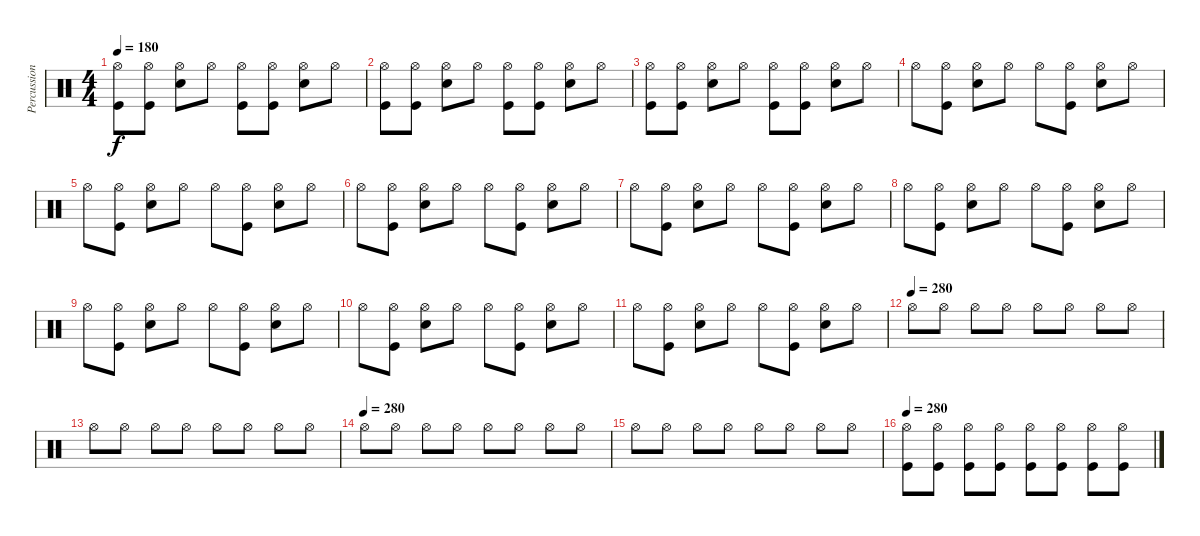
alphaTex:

\track ("Percussion" "Percussion") {instrument percussion}
\staff {score}
\articulation defaults
\ts (4 4)
\tempo 180
\clef neutral
\ks c
("Hi-Hat (open)" "Kick (hit)").8{dy f} ("Hi-Hat (open)" "Kick (hit)").8 ("Snare (hit) 2" "Hi-Hat (open)").8 "Hi-Hat (open)".8 ("Hi-Hat (open)" "Kick (hit)").8 ("Hi-Hat (open)" "Kick (hit)").8 ("Snare (hit) 2" "Hi-Hat (open)").8 "Hi-Hat (open)".8 |
("Hi-Hat (open)" "Kick (hit)").8 ("Hi-Hat (open)" "Kick (hit)").8 ("Snare (hit) 2" "Hi-Hat (open)").8 "Hi-Hat (open)".8 ("Hi-Hat (open)" "Kick (hit)").8 ("Hi-Hat (open)" "Kick (hit)").8 ("Snare (hit) 2" "Hi-Hat (open)").8 "Hi-Hat (open)".8 |
("Hi-Hat (open)" "Kick (hit)").8 ("Hi-Hat (open)" "Kick (hit)").8 ("Snare (hit) 2" "Hi-Hat (open)").8 "Hi-Hat (open)".8 ("Hi-Hat (open)" "Kick (hit)").8 ("Hi-Hat (open)" "Kick (hit)").8 ("Snare (hit) 2" "Hi-Hat (open)").8 "Hi-Hat (open)".8 |
"Hi-Hat (open)".8 ("Hi-Hat (open)" "Kick (hit)").8 ("Snare (hit) 2" "Hi-Hat (open)").8 "Hi-Hat (open)".8 "Hi-Hat (open)".8 ("Hi-Hat (open)" "Kick (hit)").8 ("Snare (hit) 2" "Hi-Hat (open)").8 "Hi-Hat (open)".8 |
"Hi-Hat (open)".8 ("Hi-Hat (open)" "Kick (hit)").8 ("Snare (hit) 2" "Hi-Hat (open)").8 "Hi-Hat (open)".8 "Hi-Hat (open)".8 ("Hi-Hat (open)" "Kick (hit)").8 ("Snare (hit) 2" "Hi-Hat (open)").8 "Hi-Hat (open)".8 |
"Hi-Hat (open)".8 ("Hi-Hat (open)" "Kick (hit)").8 ("Snare (hit) 2" "Hi-Hat (open)").8 "Hi-Hat (open)".8 "Hi-Hat (open)".8 ("Hi-Hat (open)" "Kick (hit)").8 ("Snare (hit) 2" "Hi-Hat (open)").8 "Hi-Hat (open)".8 |
"Hi-Hat (open)".8 ("Hi-Hat (open)" "Kick (hit)").8 ("Snare (hit) 2" "Hi-Hat (open)").8 "Hi-Hat (open)".8 "Hi-Hat (open)".8 ("Hi-Hat (open)" "Kick (hit)").8 ("Snare (hit) 2" "Hi-Hat (open)").8 "Hi-Hat (open)".8 |
"Hi-Hat (open)".8 ("Hi-Hat (open)" "Kick (hit)").8 ("Snare (hit) 2" "Hi-Hat (open)").8 "Hi-Hat (open)".8 "Hi-Hat (open)".8 ("Hi-Hat (open)" "Kick (hit)").8 ("Snare (hit) 2" "Hi-Hat (open)").8 "Hi-Hat (open)".8 |
"Hi-Hat (open)".8 ("Hi-Hat (open)" "Kick (hit)").8 ("Snare (hit) 2" "Hi-Hat (open)").8 "Hi-Hat (open)".8 "Hi-Hat (open)".8 ("Hi-Hat (open)" "Kick (hit)").8 ("Snare (hit) 2" "Hi-Hat (open)").8 "Hi-Hat (open)".8 |
"Hi-Hat (open)".8 ("Hi-Hat (open)" "Kick (hit)").8 ("Snare (hit) 2" "Hi-Hat (open)").8 "Hi-Hat (open)".8 "Hi-Hat (open)".8 ("Hi-Hat (open)" "Kick (hit)").8 ("Snare (hit) 2" "Hi-Hat (open)").8 "Hi-Hat (open)".8 |
"Hi-Hat (open)".8 ("Hi-Hat (open)" "Kick (hit)").8 ("Snare (hit) 2" "Hi-Hat (open)").8 "Hi-Hat (open)".8 "Hi-Hat (open)".8 ("Hi-Hat (open)" "Kick (hit)").8 ("Snare (hit) 2" "Hi-Hat (open)").8 "Hi-Hat (open)".8 |
\tempo (280)
"Hi-Hat (open)".8 "Hi-Hat (open)".8 "Hi-Hat (open)".8 "Hi-Hat (open)".8 "Hi-Hat (open)".8 "Hi-Hat (open)".8 "Hi-Hat (open)".8 "Hi-Hat (open)".8 |
"Hi-Hat (open)".8 "Hi-Hat (open)".8 "Hi-Hat (open)".8 "Hi-Hat (open)".8 "Hi-Hat (open)".8 "Hi-Hat (open)".8 "Hi-Hat (open)".8 "Hi-Hat (open)".8 |
\tempo (280)
"Hi-Hat (open)".8 "Hi-Hat (open)".8 "Hi-Hat (open)".8 "Hi-Hat (open)".8 "Hi-Hat (open)".8 "Hi-Hat (open)".8 "Hi-Hat (open)".8 "Hi-Hat (open)".8 |
"Hi-Hat (open)".8 "Hi-Hat (open)".8 "Hi-Hat (open)".8 "Hi-Hat (open)".8 "Hi-Hat (open)".8 "Hi-Hat (open)".8 "Hi-Hat (open)".8 "Hi-Hat (open)".8 |
\tempo 280
("Hi-Hat (open)" "Kick (hit)").8 ("Hi-Hat (open)" "Kick (hit)").8 ("Hi-Hat (open)" "Kick (hit)").8 ("Hi-Hat (open)" "Kick (hit)").8 ("Hi-Hat (open)" "Kick (hit)").8 ("Hi-Hat (open)" "Kick (hit)").8 ("Hi-Hat (open)" "Kick (hit)").8 ("Hi-Hat (open)" "Kick (hit)").8
